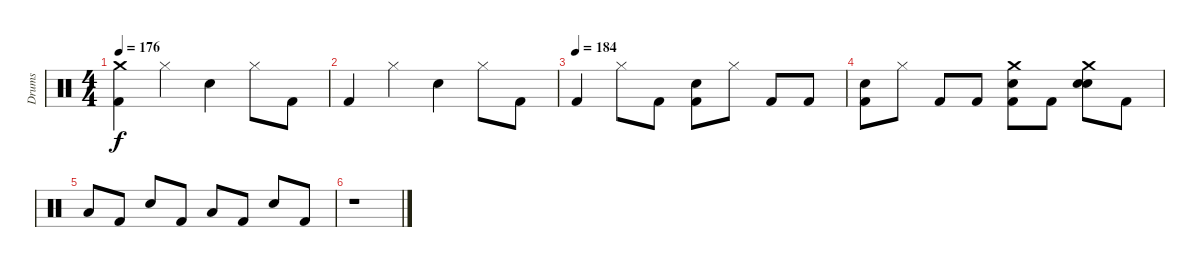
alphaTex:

\track ("Drums" "Drums") {instrument percussion}
\staff {score}
\articulation defaults
\ts (4 4)
\tempo 176
\clef neutral
\ks c
("Crash medium (hit)" "Kick (hit) 2").4{dy f} "Hi-Hat (closed)".4 "Snare (hit) 2".4 "Hi-Hat (closed)".8 "Kick (hit) 2".8 |
"Kick (hit) 2".4 "Hi-Hat (closed)".4 "Snare (hit) 2".4 "Hi-Hat (closed)".8 "Kick (hit) 2".8 |
\tempo (184)
"Kick (hit) 2".4 "Hi-Hat (closed)".8 "Kick (hit) 2".8 ("Snare (hit) 2" "Kick (hit) 2").8 "Hi-Hat (closed)".8 "Kick (hit) 2".8 "Kick (hit) 2".8 |
("Snare (hit) 2" "Kick (hit) 2").8 "Hi-Hat (closed)".8 "Kick (hit) 2".8 "Kick (hit) 2".8 ("Snare (hit) 2" "Kick (hit) 2" "Crash medium (hit)").8 "Kick (hit) 2".8 ("Snare (hit) 2" "Crash medium (hit)" "Snare (hit) 2").8 "Kick (hit) 2".8 |
"Low Floor Tom (hit)".8 "Kick (hit) 2".8 "Snare (hit) 2".8 "Kick (hit) 2".8 "Low Floor Tom (hit)".8 "Kick (hit) 2".8 "Snare (hit) 2".8 "Kick (hit) 2".8 |
r.1
